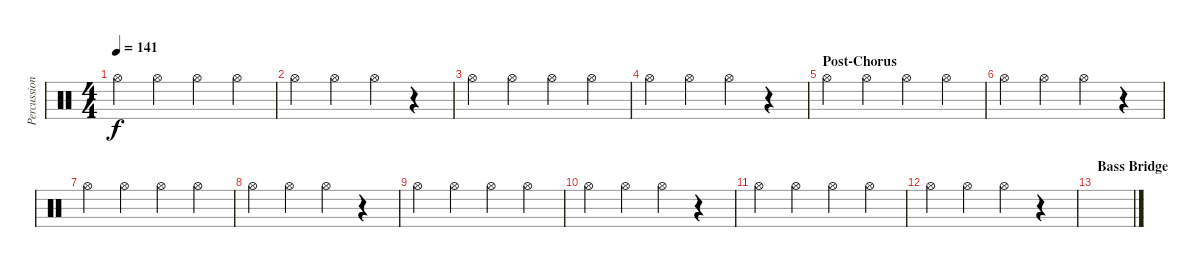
\track ("Percussion" "Percussion") {instrument percussion}
\staff {score}
\articulation defaults
\ts (4 4)
\tempo 141
\clef neutral
\ks c "Hi-Hat (open)".4{dy f} "Hi-Hat (open)".4 "Hi-Hat (open)".4 "Hi-Hat (open)".4
|
"Hi-Hat (open)".4 "Hi-Hat (open)".4 "Hi-Hat (open)".4 r.4 |
"Hi-Hat (open)".4 "Hi-Hat (open)".4 "Hi-Hat (open)".4 "Hi-Hat (open)".4 |
"Hi-Hat (open)".4 "Hi-Hat (open)".4 "Hi-Hat (open)".4 r.4 |
\section ("" "Post-Chorus")
"Hi-Hat (open)".4 "Hi-Hat (open)".4 "Hi-Hat (open)".4 "Hi-Hat (open)".4 |
"Hi-Hat (open)".4 "Hi-Hat (open)".4 "Hi-Hat (open)".4 r.4 |
"Hi-Hat (open)".4 "Hi-Hat (open)".4 "Hi-Hat (open)".4 "Hi-Hat (open)".4 |
"Hi-Hat (open)".4 "Hi-Hat (open)".4 "Hi-Hat (open)".4 r.4 |
"Hi-Hat (open)".4 "Hi-Hat (open)".4 "Hi-Hat (open)".4 "Hi-Hat (open)".4 |
"Hi-Hat (open)".4 "Hi-Hat (open)".4 "Hi-Hat (open)".4 r.4 |
"Hi-Hat (open)".4 "Hi-Hat (open)".4 "Hi-Hat (open)".4 "Hi-Hat (open)".4 |
"Hi-Hat (open)".4 "Hi-Hat (open)".4 "Hi-Hat (open)".4 r.4 |
\section ("" "Bass Bridge")
